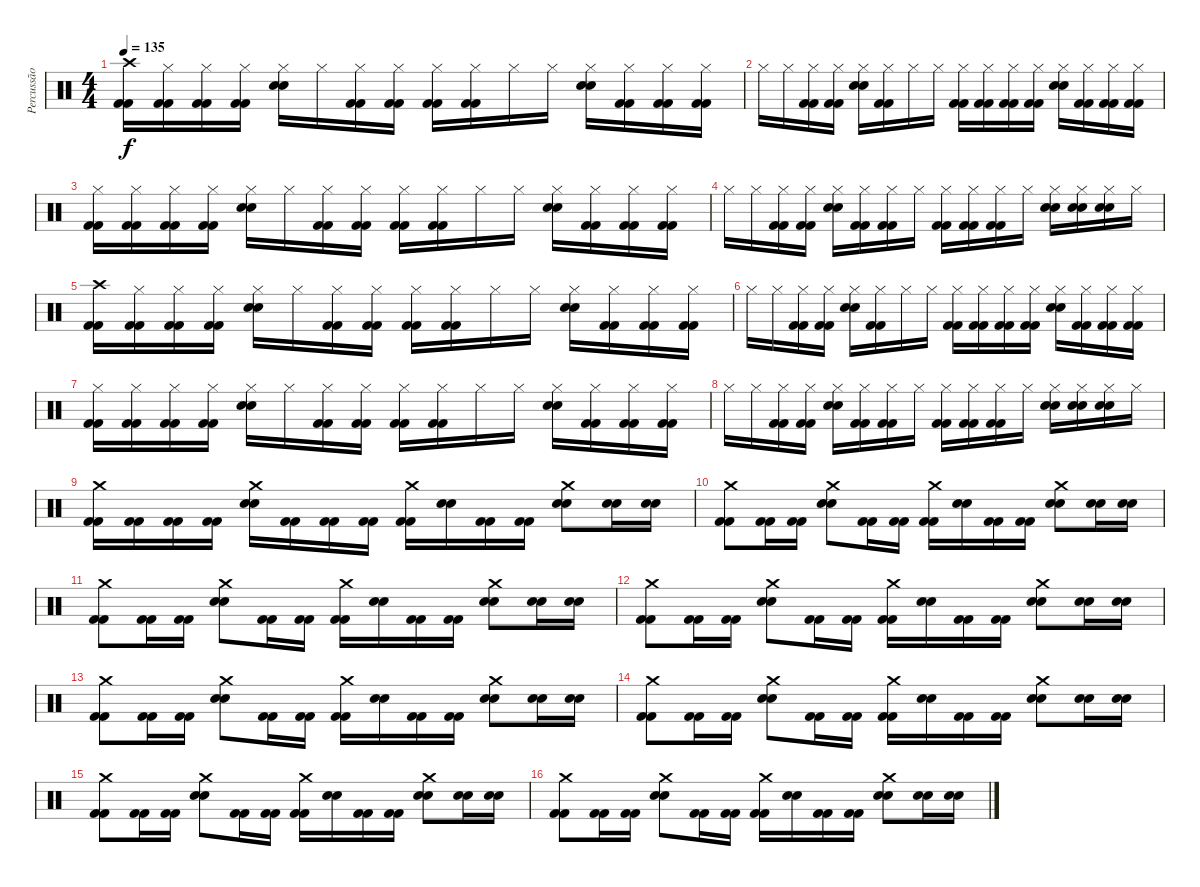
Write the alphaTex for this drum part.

\track ("Percussão" "Percussão") {instrument percussion}
\staff {score}
\articulation defaults
\ts (4 4)
\tempo 135
\clef neutral
\ks c
("Crash high (hit)" "Kick (hit) 2" "Kick (hit) 2").16{dy f} ("Hi-Hat (closed)" "Kick (hit) 2" "Kick (hit) 2").16 ("Hi-Hat (closed)" "Kick (hit) 2" "Kick (hit) 2").16 ("Hi-Hat (closed)" "Kick (hit) 2" "Kick (hit) 2").16 ("Hi-Hat (closed)" "Electric Snare (hit)" "Electric Snare (hit)").16 "Hi-Hat (closed)".16 ("Hi-Hat (closed)" "Kick (hit) 2" "Kick (hit) 2").16 ("Hi-Hat (closed)" "Kick (hit) 2" "Kick (hit) 2").16 ("Hi-Hat (closed)" "Kick (hit) 2" "Kick (hit) 2").16 ("Hi-Hat (closed)" "Kick (hit) 2" "Kick (hit) 2").16 "Hi-Hat (closed)".16 "Hi-Hat (closed)".16 ("Hi-Hat (closed)" "Electric Snare (hit)" "Electric Snare (hit)").16 ("Hi-Hat (closed)" "Kick (hit) 2" "Kick (hit) 2").16 ("Hi-Hat (closed)" "Kick (hit) 2" "Kick (hit) 2").16 ("Hi-Hat (closed)" "Kick (hit) 2" "Kick (hit) 2").16 |
"Hi-Hat (closed)".16 "Hi-Hat (closed)".16 ("Hi-Hat (closed)" "Kick (hit) 2" "Kick (hit) 2").16 ("Hi-Hat (closed)" "Kick (hit) 2" "Kick (hit) 2").16 ("Hi-Hat (closed)" "Electric Snare (hit)" "Electric Snare (hit)").16 ("Hi-Hat (closed)" "Kick (hit) 2" "Kick (hit) 2").16 "Hi-Hat (closed)".16 "Hi-Hat (closed)".16 ("Hi-Hat (closed)" "Kick (hit) 2" "Kick (hit) 2").16 ("Hi-Hat (closed)" "Kick (hit) 2" "Kick (hit) 2").16 ("Hi-Hat (closed)" "Kick (hit) 2" "Kick (hit) 2").16 ("Hi-Hat (closed)" "Kick (hit) 2" "Kick (hit) 2").16 ("Hi-Hat (closed)" "Electric Snare (hit)" "Electric Snare (hit)").16 ("Hi-Hat (closed)" "Kick (hit) 2" "Kick (hit) 2").16 ("Hi-Hat (closed)" "Kick (hit) 2" "Kick (hit) 2").16 ("Hi-Hat (closed)" "Kick (hit) 2" "Kick (hit) 2").16 |
("Hi-Hat (closed)" "Kick (hit) 2" "Kick (hit) 2").16 ("Hi-Hat (closed)" "Kick (hit) 2" "Kick (hit) 2").16 ("Hi-Hat (closed)" "Kick (hit) 2" "Kick (hit) 2").16 ("Hi-Hat (closed)" "Kick (hit) 2" "Kick (hit) 2").16 ("Hi-Hat (closed)" "Electric Snare (hit)" "Electric Snare (hit)").16 "Hi-Hat (closed)".16 ("Hi-Hat (closed)" "Kick (hit) 2" "Kick (hit) 2").16 ("Hi-Hat (closed)" "Kick (hit) 2" "Kick (hit) 2").16 ("Hi-Hat (closed)" "Kick (hit) 2" "Kick (hit) 2").16 ("Hi-Hat (closed)" "Kick (hit) 2" "Kick (hit) 2").16 "Hi-Hat (closed)".16 "Hi-Hat (closed)".16 ("Hi-Hat (closed)" "Electric Snare (hit)" "Electric Snare (hit)").16 ("Hi-Hat (closed)" "Kick (hit) 2" "Kick (hit) 2").16 ("Hi-Hat (closed)" "Kick (hit) 2" "Kick (hit) 2").16 ("Hi-Hat (closed)" "Kick (hit) 2" "Kick (hit) 2").16 |
"Hi-Hat (closed)".16 "Hi-Hat (closed)".16 ("Hi-Hat (closed)" "Kick (hit) 2" "Kick (hit) 2").16 ("Hi-Hat (closed)" "Kick (hit) 2" "Kick (hit) 2").16 ("Hi-Hat (closed)" "Electric Snare (hit)" "Electric Snare (hit)").16 ("Hi-Hat (closed)" "Kick (hit) 2" "Kick (hit) 2").16 ("Hi-Hat (closed)" "Kick (hit) 2" "Kick (hit) 2").16 "Hi-Hat (closed)".16 ("Hi-Hat (closed)" "Kick (hit) 2" "Kick (hit) 2").16 ("Hi-Hat (closed)" "Kick (hit) 2" "Kick (hit) 2").16 ("Hi-Hat (closed)" "Kick (hit) 2" "Kick (hit) 2").16 "Hi-Hat (closed)".16 ("Hi-Hat (closed)" "Electric Snare (hit)" "Electric Snare (hit)").16 ("Hi-Hat (closed)" "Electric Snare (hit)" "Electric Snare (hit)").16 ("Hi-Hat (closed)" "Electric Snare (hit)" "Electric Snare (hit)").16 "Hi-Hat (closed)".16 |
("Crash high (hit)" "Kick (hit) 2" "Kick (hit) 2").16 ("Hi-Hat (closed)" "Kick (hit) 2" "Kick (hit) 2").16 ("Hi-Hat (closed)" "Kick (hit) 2" "Kick (hit) 2").16 ("Hi-Hat (closed)" "Kick (hit) 2" "Kick (hit) 2").16 ("Hi-Hat (closed)" "Electric Snare (hit)" "Electric Snare (hit)").16 "Hi-Hat (closed)".16 ("Hi-Hat (closed)" "Kick (hit) 2" "Kick (hit) 2").16 ("Hi-Hat (closed)" "Kick (hit) 2" "Kick (hit) 2").16 ("Hi-Hat (closed)" "Kick (hit) 2" "Kick (hit) 2").16 ("Hi-Hat (closed)" "Kick (hit) 2" "Kick (hit) 2").16 "Hi-Hat (closed)".16 "Hi-Hat (closed)".16 ("Hi-Hat (closed)" "Electric Snare (hit)" "Electric Snare (hit)").16 ("Hi-Hat (closed)" "Kick (hit) 2" "Kick (hit) 2").16 ("Hi-Hat (closed)" "Kick (hit) 2" "Kick (hit) 2").16 ("Hi-Hat (closed)" "Kick (hit) 2" "Kick (hit) 2").16 |
"Hi-Hat (closed)".16 "Hi-Hat (closed)".16 ("Hi-Hat (closed)" "Kick (hit) 2" "Kick (hit) 2").16 ("Hi-Hat (closed)" "Kick (hit) 2" "Kick (hit) 2").16 ("Hi-Hat (closed)" "Electric Snare (hit)" "Electric Snare (hit)").16 ("Hi-Hat (closed)" "Kick (hit) 2" "Kick (hit) 2").16 "Hi-Hat (closed)".16 "Hi-Hat (closed)".16 ("Hi-Hat (closed)" "Kick (hit) 2" "Kick (hit) 2").16 ("Hi-Hat (closed)" "Kick (hit) 2" "Kick (hit) 2").16 ("Hi-Hat (closed)" "Kick (hit) 2" "Kick (hit) 2").16 ("Hi-Hat (closed)" "Kick (hit) 2" "Kick (hit) 2").16 ("Hi-Hat (closed)" "Electric Snare (hit)" "Electric Snare (hit)").16 ("Hi-Hat (closed)" "Kick (hit) 2" "Kick (hit) 2").16 ("Hi-Hat (closed)" "Kick (hit) 2" "Kick (hit) 2").16 ("Hi-Hat (closed)" "Kick (hit) 2" "Kick (hit) 2").16 |
("Hi-Hat (closed)" "Kick (hit) 2" "Kick (hit) 2").16 ("Hi-Hat (closed)" "Kick (hit) 2" "Kick (hit) 2").16 ("Hi-Hat (closed)" "Kick (hit) 2" "Kick (hit) 2").16 ("Hi-Hat (closed)" "Kick (hit) 2" "Kick (hit) 2").16 ("Hi-Hat (closed)" "Electric Snare (hit)" "Electric Snare (hit)").16 "Hi-Hat (closed)".16 ("Hi-Hat (closed)" "Kick (hit) 2" "Kick (hit) 2").16 ("Hi-Hat (closed)" "Kick (hit) 2" "Kick (hit) 2").16 ("Hi-Hat (closed)" "Kick (hit) 2" "Kick (hit) 2").16 ("Hi-Hat (closed)" "Kick (hit) 2" "Kick (hit) 2").16 "Hi-Hat (closed)".16 "Hi-Hat (closed)".16 ("Hi-Hat (closed)" "Electric Snare (hit)" "Electric Snare (hit)").16 ("Hi-Hat (closed)" "Kick (hit) 2" "Kick (hit) 2").16 ("Hi-Hat (closed)" "Kick (hit) 2" "Kick (hit) 2").16 ("Hi-Hat (closed)" "Kick (hit) 2" "Kick (hit) 2").16 |
"Hi-Hat (closed)".16 "Hi-Hat (closed)".16 ("Hi-Hat (closed)" "Kick (hit) 2" "Kick (hit) 2").16 ("Hi-Hat (closed)" "Kick (hit) 2" "Kick (hit) 2").16 ("Hi-Hat (closed)" "Electric Snare (hit)" "Electric Snare (hit)").16 ("Hi-Hat (closed)" "Kick (hit) 2" "Kick (hit) 2").16 ("Hi-Hat (closed)" "Kick (hit) 2" "Kick (hit) 2").16 "Hi-Hat (closed)".16 ("Hi-Hat (closed)" "Kick (hit) 2" "Kick (hit) 2").16 ("Hi-Hat (closed)" "Kick (hit) 2" "Kick (hit) 2").16 ("Hi-Hat (closed)" "Kick (hit) 2" "Kick (hit) 2").16 "Hi-Hat (closed)".16 ("Hi-Hat (closed)" "Electric Snare (hit)" "Electric Snare (hit)").16 ("Hi-Hat (closed)" "Electric Snare (hit)" "Electric Snare (hit)").16 ("Hi-Hat (closed)" "Electric Snare (hit)" "Electric Snare (hit)").16 "Hi-Hat (closed)".16 |
("Crash medium (hit)" "Kick (hit) 2" "Kick (hit) 2").16 ("Kick (hit) 2" "Kick (hit) 2").16 ("Kick (hit) 2" "Kick (hit) 2").16 ("Kick (hit) 2" "Kick (hit) 2").16 ("Crash medium (hit)" "Electric Snare (hit)" "Electric Snare (hit)").16 ("Kick (hit) 2" "Kick (hit) 2").16 ("Kick (hit) 2" "Kick (hit) 2").16 ("Kick (hit) 2" "Kick (hit) 2").16 ("Crash medium (hit)" "Kick (hit) 2" "Kick (hit) 2").16 ("Electric Snare (hit)" "Electric Snare (hit)").16 ("Kick (hit) 2" "Kick (hit) 2").16 ("Kick (hit) 2" "Kick (hit) 2").16 ("Crash medium (hit)" "Electric Snare (hit)" "Electric Snare (hit)").8 ("Electric Snare (hit)" "Electric Snare (hit)").16 ("Electric Snare (hit)" "Electric Snare (hit)").16 |
("Crash medium (hit)" "Kick (hit) 2" "Kick (hit) 2").8 ("Kick (hit) 2" "Kick (hit) 2").16 ("Kick (hit) 2" "Kick (hit) 2").16 ("Crash medium (hit)" "Electric Snare (hit)" "Electric Snare (hit)").8 ("Kick (hit) 2" "Kick (hit) 2").16 ("Kick (hit) 2" "Kick (hit) 2").16 ("Crash medium (hit)" "Kick (hit) 2" "Kick (hit) 2").16 ("Electric Snare (hit)" "Electric Snare (hit)").16 ("Kick (hit) 2" "Kick (hit) 2").16 ("Kick (hit) 2" "Kick (hit) 2").16 ("Crash medium (hit)" "Electric Snare (hit)" "Electric Snare (hit)").8 ("Electric Snare (hit)" "Electric Snare (hit)").16 ("Electric Snare (hit)" "Electric Snare (hit)").16 |
("Crash medium (hit)" "Kick (hit) 2" "Kick (hit) 2").8 ("Kick (hit) 2" "Kick (hit) 2").16 ("Kick (hit) 2" "Kick (hit) 2").16 ("Crash medium (hit)" "Electric Snare (hit)" "Electric Snare (hit)").8 ("Kick (hit) 2" "Kick (hit) 2").16 ("Kick (hit) 2" "Kick (hit) 2").16 ("Crash medium (hit)" "Kick (hit) 2" "Kick (hit) 2").16 ("Electric Snare (hit)" "Electric Snare (hit)").16 ("Kick (hit) 2" "Kick (hit) 2").16 ("Kick (hit) 2" "Kick (hit) 2").16 ("Crash medium (hit)" "Electric Snare (hit)" "Electric Snare (hit)").8 ("Electric Snare (hit)" "Electric Snare (hit)").16 ("Electric Snare (hit)" "Electric Snare (hit)").16 |
("Crash medium (hit)" "Kick (hit) 2" "Kick (hit) 2").8 ("Kick (hit) 2" "Kick (hit) 2").16 ("Kick (hit) 2" "Kick (hit) 2").16 ("Crash medium (hit)" "Electric Snare (hit)" "Electric Snare (hit)").8 ("Kick (hit) 2" "Kick (hit) 2").16 ("Kick (hit) 2" "Kick (hit) 2").16 ("Crash medium (hit)" "Kick (hit) 2" "Kick (hit) 2").16 ("Electric Snare (hit)" "Electric Snare (hit)").16 ("Kick (hit) 2" "Kick (hit) 2").16 ("Kick (hit) 2" "Kick (hit) 2").16 ("Crash medium (hit)" "Electric Snare (hit)" "Electric Snare (hit)").8 ("Electric Snare (hit)" "Electric Snare (hit)").16 ("Electric Snare (hit)" "Electric Snare (hit)").16 |
("Crash medium (hit)" "Kick (hit) 2" "Kick (hit) 2").8 ("Kick (hit) 2" "Kick (hit) 2").16 ("Kick (hit) 2" "Kick (hit) 2").16 ("Crash medium (hit)" "Electric Snare (hit)" "Electric Snare (hit)").8 ("Kick (hit) 2" "Kick (hit) 2").16 ("Kick (hit) 2" "Kick (hit) 2").16 ("Crash medium (hit)" "Kick (hit) 2" "Kick (hit) 2").16 ("Electric Snare (hit)" "Electric Snare (hit)").16 ("Kick (hit) 2" "Kick (hit) 2").16 ("Kick (hit) 2" "Kick (hit) 2").16 ("Crash medium (hit)" "Electric Snare (hit)" "Electric Snare (hit)").8 ("Electric Snare (hit)" "Electric Snare (hit)").16 ("Electric Snare (hit)" "Electric Snare (hit)").16 |
("Crash medium (hit)" "Kick (hit) 2" "Kick (hit) 2").8 ("Kick (hit) 2" "Kick (hit) 2").16 ("Kick (hit) 2" "Kick (hit) 2").16 ("Crash medium (hit)" "Electric Snare (hit)" "Electric Snare (hit)").8 ("Kick (hit) 2" "Kick (hit) 2").16 ("Kick (hit) 2" "Kick (hit) 2").16 ("Crash medium (hit)" "Kick (hit) 2" "Kick (hit) 2").16 ("Electric Snare (hit)" "Electric Snare (hit)").16 ("Kick (hit) 2" "Kick (hit) 2").16 ("Kick (hit) 2" "Kick (hit) 2").16 ("Crash medium (hit)" "Electric Snare (hit)" "Electric Snare (hit)").8 ("Electric Snare (hit)" "Electric Snare (hit)").16 ("Electric Snare (hit)" "Electric Snare (hit)").16 |
("Crash medium (hit)" "Kick (hit) 2" "Kick (hit) 2").8 ("Kick (hit) 2" "Kick (hit) 2").16 ("Kick (hit) 2" "Kick (hit) 2").16 ("Crash medium (hit)" "Electric Snare (hit)" "Electric Snare (hit)").8 ("Kick (hit) 2" "Kick (hit) 2").16 ("Kick (hit) 2" "Kick (hit) 2").16 ("Crash medium (hit)" "Kick (hit) 2" "Kick (hit) 2").16 ("Electric Snare (hit)" "Electric Snare (hit)").16 ("Kick (hit) 2" "Kick (hit) 2").16 ("Kick (hit) 2" "Kick (hit) 2").16 ("Crash medium (hit)" "Electric Snare (hit)" "Electric Snare (hit)").8 ("Electric Snare (hit)" "Electric Snare (hit)").16 ("Electric Snare (hit)" "Electric Snare (hit)").16 |
("Crash medium (hit)" "Kick (hit) 2" "Kick (hit) 2").8 ("Kick (hit) 2" "Kick (hit) 2").16 ("Kick (hit) 2" "Kick (hit) 2").16 ("Crash medium (hit)" "Electric Snare (hit)" "Electric Snare (hit)").8 ("Kick (hit) 2" "Kick (hit) 2").16 ("Kick (hit) 2" "Kick (hit) 2").16 ("Crash medium (hit)" "Kick (hit) 2" "Kick (hit) 2").16 ("Electric Snare (hit)" "Electric Snare (hit)").16 ("Kick (hit) 2" "Kick (hit) 2").16 ("Kick (hit) 2" "Kick (hit) 2").16 ("Crash medium (hit)" "Electric Snare (hit)" "Electric Snare (hit)").8 ("Electric Snare (hit)" "Electric Snare (hit)").16 ("Electric Snare (hit)" "Electric Snare (hit)").16
